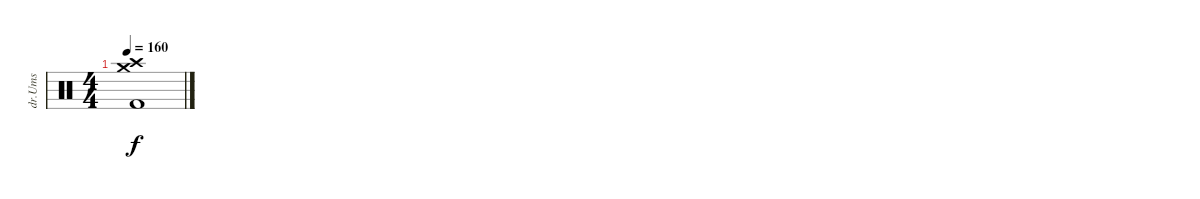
\track ("dr.Ums" "dr.Ums") {instrument percussion}
\staff {score}
\articulation defaults
\ts (4 4)
\tempo 160
\clef neutral
\ks c
("Crash high (hit)" "Crash medium (hit)" "Kick (hit) 2").1{dy f}
